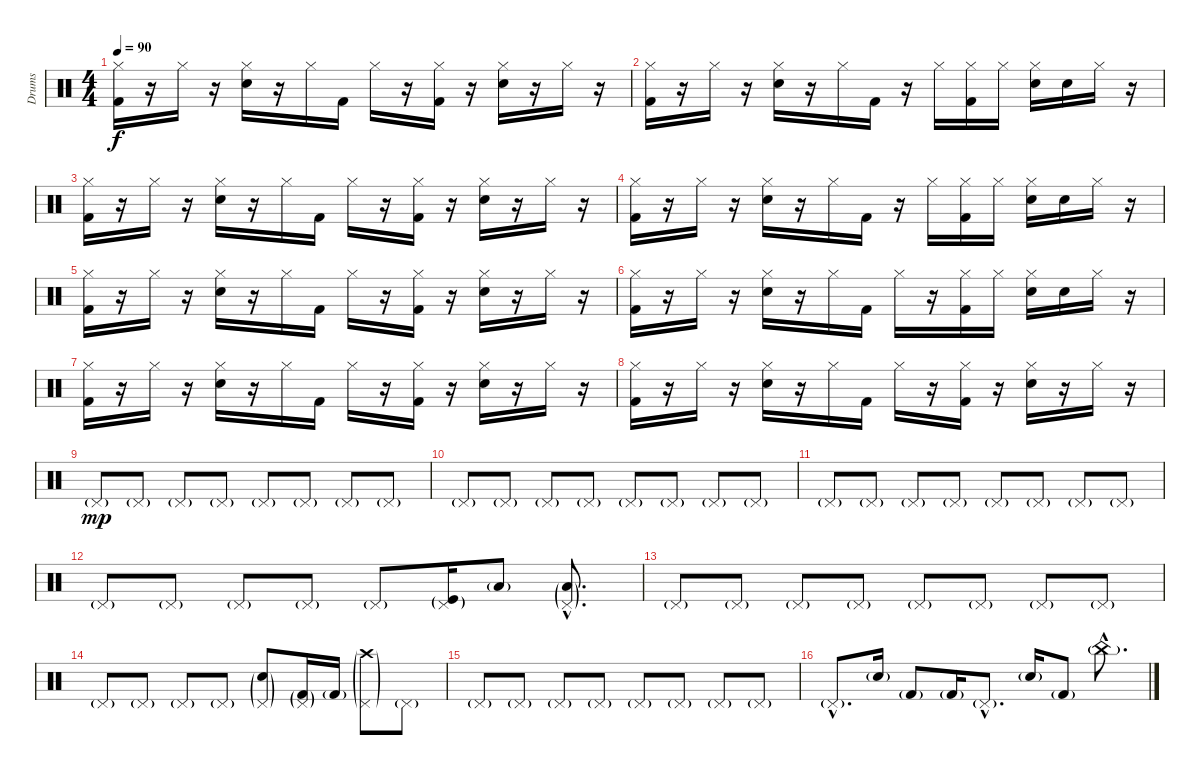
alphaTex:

\track ("Drums" "Drums") {instrument percussion}
\staff {score}
\articulation defaults
\ts (4 4)
\tempo 90
\clef neutral
\ks c
("Hi-Hat (closed)" "Kick (hit) 2").16{dy f} r.16 "Hi-Hat (closed)".16 r.16 ("Hi-Hat (closed)" "Electric Snare (hit)").16 r.16 "Hi-Hat (closed)".16 "Kick (hit) 2".16 "Hi-Hat (closed)".16 r.16 ("Hi-Hat (closed)" "Kick (hit) 2").16 r.16 ("Hi-Hat (closed)" "Electric Snare (hit)").16 r.16 "Hi-Hat (closed)".16 r.16 |
("Hi-Hat (closed)" "Kick (hit) 2").16 r.16 "Hi-Hat (closed)".16 r.16 ("Hi-Hat (closed)" "Electric Snare (hit)").16 r.16 "Hi-Hat (closed)".16 "Kick (hit) 2".16 r.16 "Hi-Hat (closed)".16 ("Hi-Hat (closed)" "Kick (hit) 2").16 "Hi-Hat (closed)".16 ("Hi-Hat (closed)" "Electric Snare (hit)").16 "Electric Snare (hit)".16 "Hi-Hat (closed)".16 r.16 |
("Hi-Hat (closed)" "Kick (hit) 2").16 r.16 "Hi-Hat (closed)".16 r.16 ("Hi-Hat (closed)" "Electric Snare (hit)").16 r.16 "Hi-Hat (closed)".16 "Kick (hit) 2".16 "Hi-Hat (closed)".16 r.16 ("Hi-Hat (closed)" "Kick (hit) 2").16 r.16 ("Hi-Hat (closed)" "Electric Snare (hit)").16 r.16 "Hi-Hat (closed)".16 r.16 |
("Hi-Hat (closed)" "Kick (hit) 2").16 r.16 "Hi-Hat (closed)".16 r.16 ("Hi-Hat (closed)" "Electric Snare (hit)").16 r.16 "Hi-Hat (closed)".16 "Kick (hit) 2".16 r.16 "Hi-Hat (closed)".16 ("Hi-Hat (closed)" "Kick (hit) 2").16 "Hi-Hat (closed)".16 ("Hi-Hat (closed)" "Electric Snare (hit)").16 "Electric Snare (hit)".16 "Hi-Hat (closed)".16 r.16 |
("Hi-Hat (closed)" "Kick (hit) 2").16 r.16 "Hi-Hat (closed)".16 r.16 ("Hi-Hat (closed)" "Electric Snare (hit)").16 r.16 "Hi-Hat (closed)".16 "Kick (hit) 2".16 "Hi-Hat (closed)".16 r.16 ("Hi-Hat (closed)" "Kick (hit) 2").16 r.16 ("Hi-Hat (closed)" "Electric Snare (hit)").16 r.16 "Hi-Hat (closed)".16 r.16 |
("Hi-Hat (closed)" "Kick (hit) 2").16 r.16 "Hi-Hat (closed)".16 r.16 ("Hi-Hat (closed)" "Electric Snare (hit)").16 r.16 "Hi-Hat (closed)".16 "Kick (hit) 2".16 "Hi-Hat (closed)".16 r.16 ("Hi-Hat (closed)" "Kick (hit) 2").16 "Hi-Hat (closed)".16 ("Hi-Hat (closed)" "Electric Snare (hit)").16 "Electric Snare (hit)".16 "Hi-Hat (closed)".16 r.16 |
("Hi-Hat (closed)" "Kick (hit) 2").16 r.16 "Hi-Hat (closed)".16 r.16 ("Hi-Hat (closed)" "Electric Snare (hit)").16 r.16 "Hi-Hat (closed)".16 "Kick (hit) 2".16 "Hi-Hat (closed)".16 r.16 ("Hi-Hat (closed)" "Kick (hit) 2").16 r.16 ("Hi-Hat (closed)" "Electric Snare (hit)").16 r.16 "Hi-Hat (closed)".16 r.16 |
("Hi-Hat (closed)" "Kick (hit) 2").16 r.16 "Hi-Hat (closed)".16 r.16 ("Hi-Hat (closed)" "Electric Snare (hit)").16 r.16 "Hi-Hat (closed)".16 "Kick (hit) 2".16 "Hi-Hat (closed)".16 r.16 ("Hi-Hat (closed)" "Kick (hit) 2").16 r.16 ("Hi-Hat (closed)" "Electric Snare (hit)").16 r.16 "Hi-Hat (closed)".16 r.16 |
"Pedal Hi-Hat (hit)"{g}.8{dy mp} "Pedal Hi-Hat (hit)"{g}.8 "Pedal Hi-Hat (hit)"{g}.8 "Pedal Hi-Hat (hit)"{g}.8 "Pedal Hi-Hat (hit)"{g}.8 "Pedal Hi-Hat (hit)"{g}.8 "Pedal Hi-Hat (hit)"{g}.8 "Pedal Hi-Hat (hit)"{g}.8 |
"Pedal Hi-Hat (hit)"{g}.8 "Pedal Hi-Hat (hit)"{g}.8 "Pedal Hi-Hat (hit)"{g}.8 "Pedal Hi-Hat (hit)"{g}.8 "Pedal Hi-Hat (hit)"{g}.8 "Pedal Hi-Hat (hit)"{g}.8 "Pedal Hi-Hat (hit)"{g}.8 "Pedal Hi-Hat (hit)"{g}.8 |
"Pedal Hi-Hat (hit)"{g}.8 "Pedal Hi-Hat (hit)"{g}.8 "Pedal Hi-Hat (hit)"{g}.8 "Pedal Hi-Hat (hit)"{g}.8 "Pedal Hi-Hat (hit)"{g}.8 "Pedal Hi-Hat (hit)"{g}.8 "Pedal Hi-Hat (hit)"{g}.8 "Pedal Hi-Hat (hit)"{g}.8 |
"Pedal Hi-Hat (hit)"{g}.8 "Pedal Hi-Hat (hit)"{g}.8 "Pedal Hi-Hat (hit)"{g}.8 "Pedal Hi-Hat (hit)"{g}.8 "Pedal Hi-Hat (hit)"{g}.8 ("Pedal Hi-Hat (hit)"{g} "Kick (hit)"{g}).16 "Low Floor Tom (hit)"{g}.8 ("Pedal Hi-Hat (hit)"{g hac} "Low Floor Tom (hit)"{g hac}).8{d} |
"Pedal Hi-Hat (hit)"{g}.8 "Pedal Hi-Hat (hit)"{g}.8 "Pedal Hi-Hat (hit)"{g}.8 "Pedal Hi-Hat (hit)"{g}.8 "Pedal Hi-Hat (hit)"{g}.8 "Pedal Hi-Hat (hit)"{g}.8 "Pedal Hi-Hat (hit)"{g}.8 "Pedal Hi-Hat (hit)"{g}.8 |
"Pedal Hi-Hat (hit)"{g}.8 "Pedal Hi-Hat (hit)"{g}.8 "Pedal Hi-Hat (hit)"{g}.8 "Pedal Hi-Hat (hit)"{g}.8 ("Pedal Hi-Hat (hit)"{g} "Electric Snare (hit)"{g}).8 ("Pedal Hi-Hat (hit)"{g} "Kick (hit) 2"{g}).16 "Kick (hit) 2"{g}.16 ("Pedal Hi-Hat (hit)"{g} "Crash high (hit)"{g}).8 "Pedal Hi-Hat (hit)"{g}.8 |
"Pedal Hi-Hat (hit)"{g}.8 "Pedal Hi-Hat (hit)"{g}.8 "Pedal Hi-Hat (hit)"{g}.8 "Pedal Hi-Hat (hit)"{g}.8 "Pedal Hi-Hat (hit)"{g}.8 "Pedal Hi-Hat (hit)"{g}.8 "Pedal Hi-Hat (hit)"{g}.8 "Pedal Hi-Hat (hit)"{g}.8 |
"Pedal Hi-Hat (hit)"{g hac}.8{d} "Electric Snare (hit)"{g}.16 "Kick (hit) 2"{g}.8 "Kick (hit) 2"{g}.16 "Pedal Hi-Hat (hit)"{g hac}.8{d} "Electric Snare (hit)"{g}.16 "Kick (hit) 2"{g}.8 "China (hit)"{g hac}.8{d}
